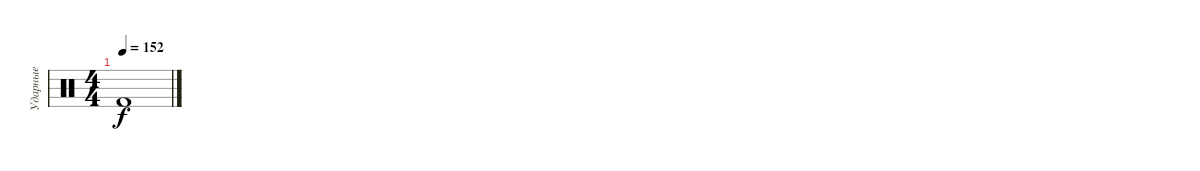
\track ("Ударные" "Ударные") {instrument percussion}
\staff {score}
\articulation defaults
\ts (4 4)
\tempo 152
\clef neutral
\ks c "Kick (hit) 2".1{dy f}
